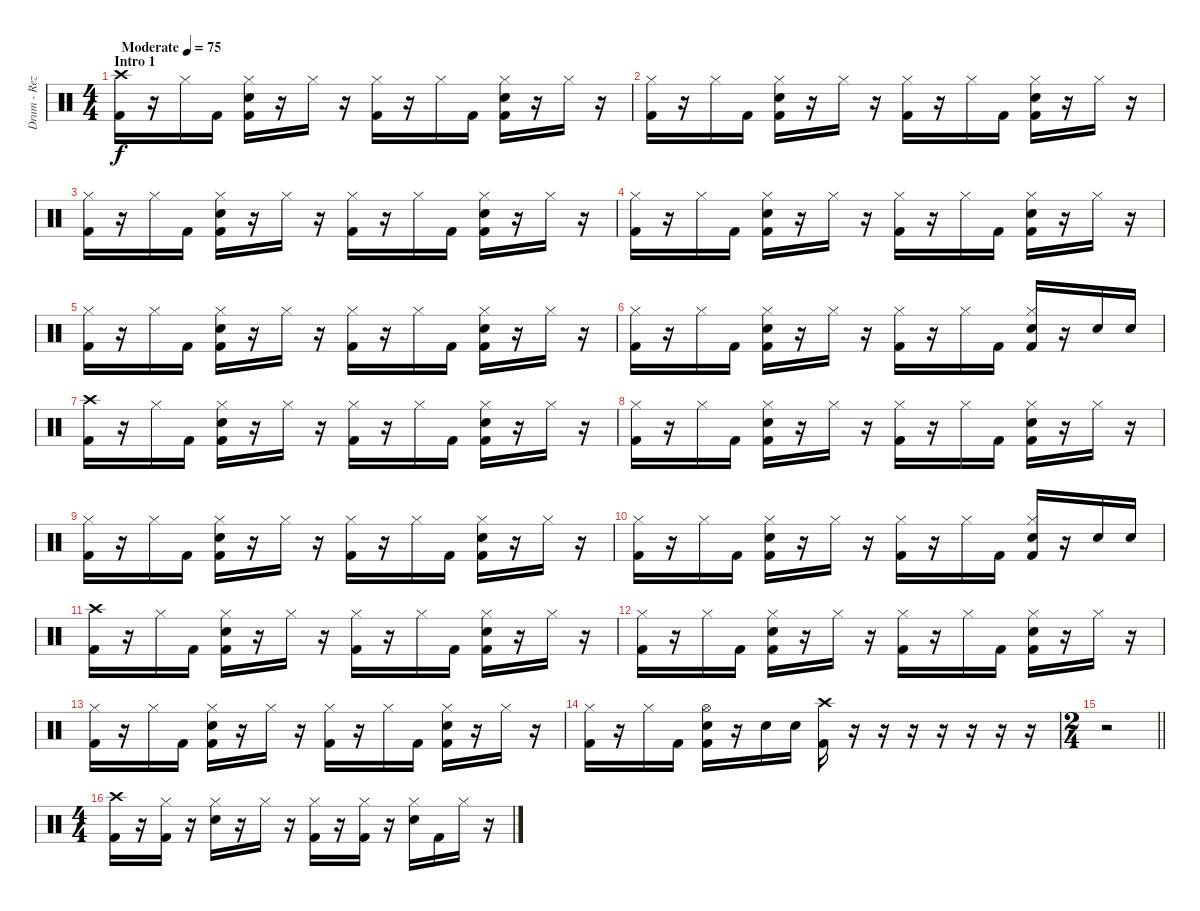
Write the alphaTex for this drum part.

\track ("Drum - Reza" "Drum - Rez") {instrument percussion}
\staff {score}
\articulation defaults
\ts (4 4)
\section ("" "Intro 1")
\tempo (75 "Moderate")
\clef neutral
\ks c
("Crash high (hit)" "Kick (hit) 2").16{dy f} r.16 "Hi-Hat (closed)".16 "Kick (hit) 2".16 ("Hi-Hat (closed)" "Electric Snare (hit)" "Kick (hit) 2").16 r.16 "Hi-Hat (closed)".16 r.16 ("Hi-Hat (closed)" "Kick (hit) 2").16 r.16 "Hi-Hat (closed)".16 "Kick (hit) 2".16 ("Hi-Hat (closed)" "Electric Snare (hit)" "Kick (hit) 2").16 r.16 "Hi-Hat (closed)".16 r.16 |
("Hi-Hat (closed)" "Kick (hit) 2").16 r.16 "Hi-Hat (closed)".16 "Kick (hit) 2".16 ("Hi-Hat (closed)" "Electric Snare (hit)" "Kick (hit) 2").16 r.16 "Hi-Hat (closed)".16 r.16 ("Hi-Hat (closed)" "Kick (hit) 2").16 r.16 "Hi-Hat (closed)".16 "Kick (hit) 2".16 ("Hi-Hat (closed)" "Electric Snare (hit)" "Kick (hit) 2").16 r.16 "Hi-Hat (closed)".16 r.16 |
("Hi-Hat (closed)" "Kick (hit) 2").16 r.16 "Hi-Hat (closed)".16 "Kick (hit) 2".16 ("Hi-Hat (closed)" "Electric Snare (hit)" "Kick (hit) 2").16 r.16 "Hi-Hat (closed)".16 r.16 ("Hi-Hat (closed)" "Kick (hit) 2").16 r.16 "Hi-Hat (closed)".16 "Kick (hit) 2".16 ("Hi-Hat (closed)" "Electric Snare (hit)" "Kick (hit) 2").16 r.16 "Hi-Hat (closed)".16 r.16 |
("Hi-Hat (closed)" "Kick (hit) 2").16 r.16 "Hi-Hat (closed)".16 "Kick (hit) 2".16 ("Hi-Hat (closed)" "Electric Snare (hit)" "Kick (hit) 2").16 r.16 "Hi-Hat (closed)".16 r.16 ("Hi-Hat (closed)" "Kick (hit) 2").16 r.16 "Hi-Hat (closed)".16 "Kick (hit) 2".16 ("Hi-Hat (closed)" "Electric Snare (hit)" "Kick (hit) 2").16 r.16 "Hi-Hat (closed)".16 r.16 |
("Hi-Hat (closed)" "Kick (hit) 2").16 r.16 "Hi-Hat (closed)".16 "Kick (hit) 2".16 ("Hi-Hat (closed)" "Electric Snare (hit)" "Kick (hit) 2").16 r.16 "Hi-Hat (closed)".16 r.16 ("Hi-Hat (closed)" "Kick (hit) 2").16 r.16 "Hi-Hat (closed)".16 "Kick (hit) 2".16 ("Hi-Hat (closed)" "Electric Snare (hit)" "Kick (hit) 2").16 r.16 "Hi-Hat (closed)".16 r.16 |
("Hi-Hat (closed)" "Kick (hit) 2").16 r.16 "Hi-Hat (closed)".16 "Kick (hit) 2".16 ("Hi-Hat (closed)" "Electric Snare (hit)" "Kick (hit) 2").16 r.16 "Hi-Hat (closed)".16 r.16 ("Hi-Hat (closed)" "Kick (hit) 2").16 r.16 "Hi-Hat (closed)".16 "Kick (hit) 2".16 ("Hi-Hat (closed)" "Electric Snare (hit)" "Kick (hit) 2").16 r.16 "Electric Snare (hit)".16 "Electric Snare (hit)".16 |
("Crash high (hit)" "Kick (hit) 2").16 r.16 "Hi-Hat (closed)".16 "Kick (hit) 2".16 ("Hi-Hat (closed)" "Electric Snare (hit)" "Kick (hit) 2").16 r.16 "Hi-Hat (closed)".16 r.16 ("Hi-Hat (closed)" "Kick (hit) 2").16 r.16 "Hi-Hat (closed)".16 "Kick (hit) 2".16 ("Hi-Hat (closed)" "Electric Snare (hit)" "Kick (hit) 2").16 r.16 "Hi-Hat (closed)".16 r.16 |
("Hi-Hat (closed)" "Kick (hit) 2").16 r.16 "Hi-Hat (closed)".16 "Kick (hit) 2".16 ("Hi-Hat (closed)" "Electric Snare (hit)" "Kick (hit) 2").16 r.16 "Hi-Hat (closed)".16 r.16 ("Hi-Hat (closed)" "Kick (hit) 2").16 r.16 "Hi-Hat (closed)".16 "Kick (hit) 2".16 ("Hi-Hat (closed)" "Electric Snare (hit)" "Kick (hit) 2").16 r.16 "Hi-Hat (closed)".16 r.16 |
("Hi-Hat (closed)" "Kick (hit) 2").16 r.16 "Hi-Hat (closed)".16 "Kick (hit) 2".16 ("Hi-Hat (closed)" "Electric Snare (hit)" "Kick (hit) 2").16 r.16 "Hi-Hat (closed)".16 r.16 ("Hi-Hat (closed)" "Kick (hit) 2").16 r.16 "Hi-Hat (closed)".16 "Kick (hit) 2".16 ("Hi-Hat (closed)" "Electric Snare (hit)" "Kick (hit) 2").16 r.16 "Hi-Hat (closed)".16 r.16 |
("Hi-Hat (closed)" "Kick (hit) 2").16 r.16 "Hi-Hat (closed)".16 "Kick (hit) 2".16 ("Hi-Hat (closed)" "Electric Snare (hit)" "Kick (hit) 2").16 r.16 "Hi-Hat (closed)".16 r.16 ("Hi-Hat (closed)" "Kick (hit) 2").16 r.16 "Hi-Hat (closed)".16 "Kick (hit) 2".16 ("Hi-Hat (closed)" "Electric Snare (hit)" "Kick (hit) 2").16 r.16 "Electric Snare (hit)".16 "Electric Snare (hit)".16 |
("Crash high (hit)" "Kick (hit) 2").16 r.16 "Hi-Hat (closed)".16 "Kick (hit) 2".16 ("Hi-Hat (closed)" "Electric Snare (hit)" "Kick (hit) 2").16 r.16 "Hi-Hat (closed)".16 r.16 ("Hi-Hat (closed)" "Kick (hit) 2").16 r.16 "Hi-Hat (closed)".16 "Kick (hit) 2".16 ("Hi-Hat (closed)" "Electric Snare (hit)" "Kick (hit) 2").16 r.16 "Hi-Hat (closed)".16 r.16 |
("Hi-Hat (closed)" "Kick (hit) 2").16 r.16 "Hi-Hat (closed)".16 "Kick (hit) 2".16 ("Hi-Hat (closed)" "Electric Snare (hit)" "Kick (hit) 2").16 r.16 "Hi-Hat (closed)".16 r.16 ("Hi-Hat (closed)" "Kick (hit) 2").16 r.16 "Hi-Hat (closed)".16 "Kick (hit) 2".16 ("Hi-Hat (closed)" "Electric Snare (hit)" "Kick (hit) 2").16 r.16 "Hi-Hat (closed)".16 r.16 |
("Hi-Hat (closed)" "Kick (hit) 2").16 r.16 "Hi-Hat (closed)".16 "Kick (hit) 2".16 ("Hi-Hat (closed)" "Electric Snare (hit)" "Kick (hit) 2").16 r.16 "Hi-Hat (closed)".16 r.16 ("Hi-Hat (closed)" "Kick (hit) 2").16 r.16 "Hi-Hat (closed)".16 "Kick (hit) 2".16 ("Hi-Hat (closed)" "Electric Snare (hit)" "Kick (hit) 2").16 r.16 "Hi-Hat (closed)".16 r.16 |
("Hi-Hat (closed)" "Kick (hit) 2").16 r.16 "Hi-Hat (closed)".16 "Kick (hit) 2".16 ("Hi-Hat (open)" "Electric Snare (hit)" "Kick (hit) 2").16 r.16 "Electric Snare (hit)".16 "Electric Snare (hit)".16 ("Crash high (hit)" "Kick (hit) 2").16 r.16 r.16 r.16 r.16 r.16 r.16 r.16 |
\ts (2 4)
\barLineRight lightlight
r.2 |
\ts (4 4)
("Crash high (hit)" "Kick (hit) 2").16 r.16 ("Hi-Hat (closed)" "Kick (hit) 2").16 r.16 ("Hi-Hat (closed)" "Electric Snare (hit)").16 r.16 "Hi-Hat (closed)".16 r.16 ("Hi-Hat (closed)" "Kick (hit) 2").16 r.16 ("Hi-Hat (closed)" "Kick (hit) 2").16 r.16 ("Hi-Hat (closed)" "Electric Snare (hit)").16 "Kick (hit) 2".16 "Hi-Hat (closed)".16 r.16
